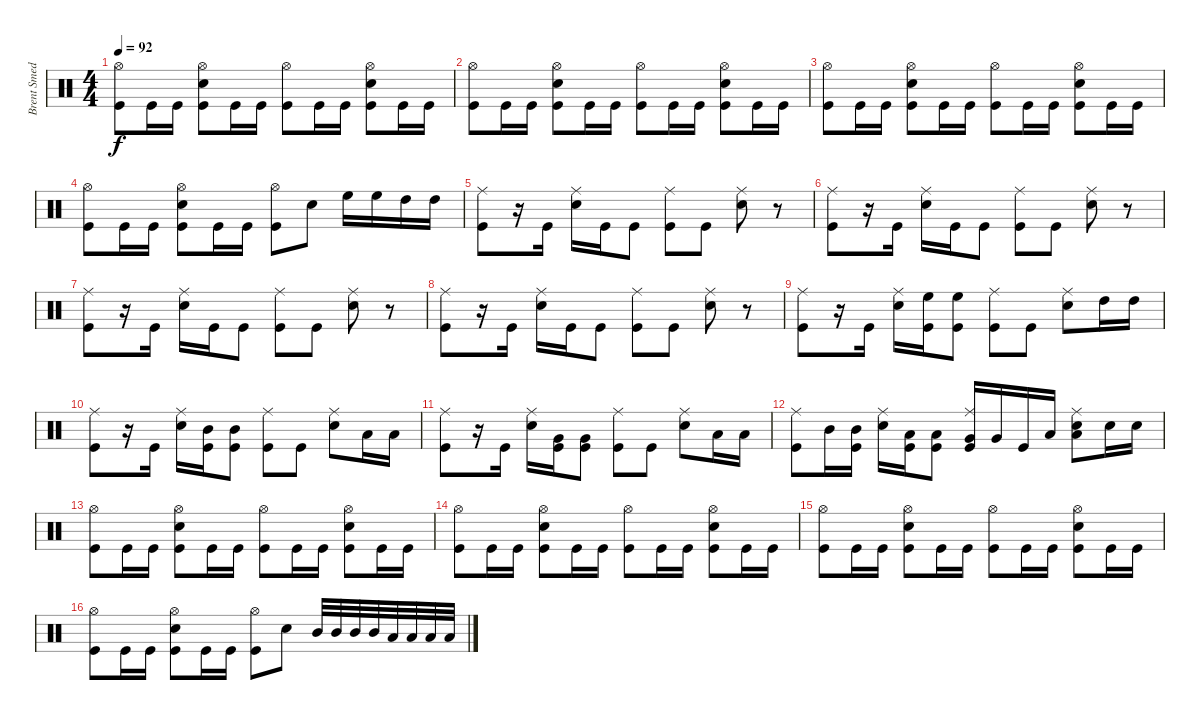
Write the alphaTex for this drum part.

\track ("Brent Smedley" "Brent Smed") {instrument percussion}
\staff {score}
\articulation defaults
\ts (4 4)
\tempo 92
\clef neutral
\ks c
("Hi-Hat (open)" "Kick (hit)").8{dy f} "Kick (hit)".16 "Kick (hit)".16 ("Hi-Hat (open)" "Electric Snare (hit)" "Kick (hit)").8 "Kick (hit)".16 "Kick (hit)".16 ("Hi-Hat (open)" "Kick (hit)").8 "Kick (hit)".16 "Kick (hit)".16 ("Hi-Hat (open)" "Electric Snare (hit)" "Kick (hit)").8 "Kick (hit)".16 "Kick (hit)".16 |
("Hi-Hat (open)" "Kick (hit)").8 "Kick (hit)".16 "Kick (hit)".16 ("Hi-Hat (open)" "Electric Snare (hit)" "Kick (hit)").8 "Kick (hit)".16 "Kick (hit)".16 ("Hi-Hat (open)" "Kick (hit)").8 "Kick (hit)".16 "Kick (hit)".16 ("Hi-Hat (open)" "Electric Snare (hit)" "Kick (hit)").8 "Kick (hit)".16 "Kick (hit)".16 |
("Hi-Hat (open)" "Kick (hit)").8 "Kick (hit)".16 "Kick (hit)".16 ("Hi-Hat (open)" "Electric Snare (hit)" "Kick (hit)").8 "Kick (hit)".16 "Kick (hit)".16 ("Hi-Hat (open)" "Kick (hit)").8 "Kick (hit)".16 "Kick (hit)".16 ("Hi-Hat (open)" "Electric Snare (hit)" "Kick (hit)").8 "Kick (hit)".16 "Kick (hit)".16 |
("Hi-Hat (open)" "Kick (hit)").8 "Kick (hit)".16 "Kick (hit)".16 ("Hi-Hat (open)" "Electric Snare (hit)" "Kick (hit)").8 "Kick (hit)".16 "Kick (hit)".16 ("Hi-Hat (open)" "Kick (hit)").8 "Electric Snare (hit)".8 "High Floor Tom (hit)".16 "High Floor Tom (hit)".16 "High Tom (hit)".16 "High Tom (hit)".16 |
("Ride (middle)" "Kick (hit)").8 r.16 "Kick (hit)".16 ("Ride (middle)" "Electric Snare (hit)").16 "Kick (hit)".16 "Kick (hit)".8 ("Ride (middle)" "Kick (hit)").8 "Kick (hit)".8 ("Ride (middle)" "Electric Snare (hit)").8 r.8 |
("Ride (middle)" "Kick (hit)").8 r.16 "Kick (hit)".16 ("Ride (middle)" "Electric Snare (hit)").16 "Kick (hit)".16 "Kick (hit)".8 ("Ride (middle)" "Kick (hit)").8 "Kick (hit)".8 ("Ride (middle)" "Electric Snare (hit)").8 r.8 |
("Ride (middle)" "Kick (hit)").8 r.16 "Kick (hit)".16 ("Ride (middle)" "Electric Snare (hit)").16 "Kick (hit)".16 "Kick (hit)".8 ("Ride (middle)" "Kick (hit)").8 "Kick (hit)".8 ("Ride (middle)" "Electric Snare (hit)").8 r.8 |
("Ride (middle)" "Kick (hit)").8 r.16 "Kick (hit)".16 ("Ride (middle)" "Electric Snare (hit)").16 "Kick (hit)".16 "Kick (hit)".8 ("Ride (middle)" "Kick (hit)").8 "Kick (hit)".8 ("Ride (middle)" "Electric Snare (hit)").8 r.8 |
("Ride (middle)" "Kick (hit)").8 r.16 "Kick (hit)".16 ("Ride (middle)" "Electric Snare (hit)").16 ("High Floor Tom (hit)" "Kick (hit)").16 ("High Floor Tom (hit)" "Kick (hit)").8 ("Ride (middle)" "Kick (hit)").8 "Kick (hit)".8 ("Ride (middle)" "Electric Snare (hit)").8 "High Tom (hit)".16 "High Tom (hit)".16 |
("Ride (middle)" "Kick (hit)").8 r.16 "Kick (hit)".16 ("Ride (middle)" "Electric Snare (hit)").16 ("Mid Tom (hit)" "Kick (hit)").16 ("Mid Tom (hit)" "Kick (hit)").8 ("Ride (middle)" "Kick (hit)").8 "Kick (hit)".8 ("Ride (middle)" "Electric Snare (hit)").8 "Low Tom (hit)".16 "Low Tom (hit)".16 |
("Ride (middle)" "Kick (hit)").8 r.16 "Kick (hit)".16 ("Ride (middle)" "Electric Snare (hit)").16 ("Very Low Tom (hit)" "Kick (hit)").16 ("Very Low Tom (hit)" "Kick (hit)").8 ("Ride (middle)" "Kick (hit)").8 "Kick (hit)".8 ("Ride (middle)" "Electric Snare (hit)").8 "Low Floor Tom (hit)".16 "Low Floor Tom (hit)".16 |
("Ride (middle)" "Kick (hit)").8 "Mid Tom (hit)".16 ("Mid Tom (hit)" "Kick (hit)").16 ("Ride (middle)" "Electric Snare (hit)").16 ("Low Tom (hit)" "Kick (hit)").16 ("Low Tom (hit)" "Kick (hit)").8 ("Ride (middle)" "Very Low Tom (hit)" "Kick (hit)").16 "Very Low Tom (hit)".16 "Kick (hit)".16 "Low Floor Tom (hit)".16 ("Ride (middle)" "Low Floor Tom (hit)" "Electric Snare (hit)").8 "Electric Snare (hit)".16 "Electric Snare (hit)".16 |
("Hi-Hat (open)" "Kick (hit)").8 "Kick (hit)".16 "Kick (hit)".16 ("Hi-Hat (open)" "Electric Snare (hit)" "Kick (hit)").8 "Kick (hit)".16 "Kick (hit)".16 ("Hi-Hat (open)" "Kick (hit)").8 "Kick (hit)".16 "Kick (hit)".16 ("Hi-Hat (open)" "Electric Snare (hit)" "Kick (hit)").8 "Kick (hit)".16 "Kick (hit)".16 |
("Hi-Hat (open)" "Kick (hit)").8 "Kick (hit)".16 "Kick (hit)".16 ("Hi-Hat (open)" "Electric Snare (hit)" "Kick (hit)").8 "Kick (hit)".16 "Kick (hit)".16 ("Hi-Hat (open)" "Kick (hit)").8 "Kick (hit)".16 "Kick (hit)".16 ("Hi-Hat (open)" "Electric Snare (hit)" "Kick (hit)").8 "Kick (hit)".16 "Kick (hit)".16 |
("Hi-Hat (open)" "Kick (hit)").8 "Kick (hit)".16 "Kick (hit)".16 ("Hi-Hat (open)" "Electric Snare (hit)" "Kick (hit)").8 "Kick (hit)".16 "Kick (hit)".16 ("Hi-Hat (open)" "Kick (hit)").8 "Kick (hit)".16 "Kick (hit)".16 ("Hi-Hat (open)" "Electric Snare (hit)" "Kick (hit)").8 "Kick (hit)".16 "Kick (hit)".16 |
("Hi-Hat (open)" "Kick (hit)").8 "Kick (hit)".16 "Kick (hit)".16 ("Hi-Hat (open)" "Electric Snare (hit)" "Kick (hit)").8 "Kick (hit)".16 "Kick (hit)".16 ("Hi-Hat (open)" "Kick (hit)").8 "Electric Snare (hit)".8 "Mid Tom (hit)".32 "Mid Tom (hit)".32 "Mid Tom (hit)".32 "Mid Tom (hit)".32 "Low Tom (hit)".32 "Low Tom (hit)".32 "Low Tom (hit)".32 "Low Tom (hit)".32
